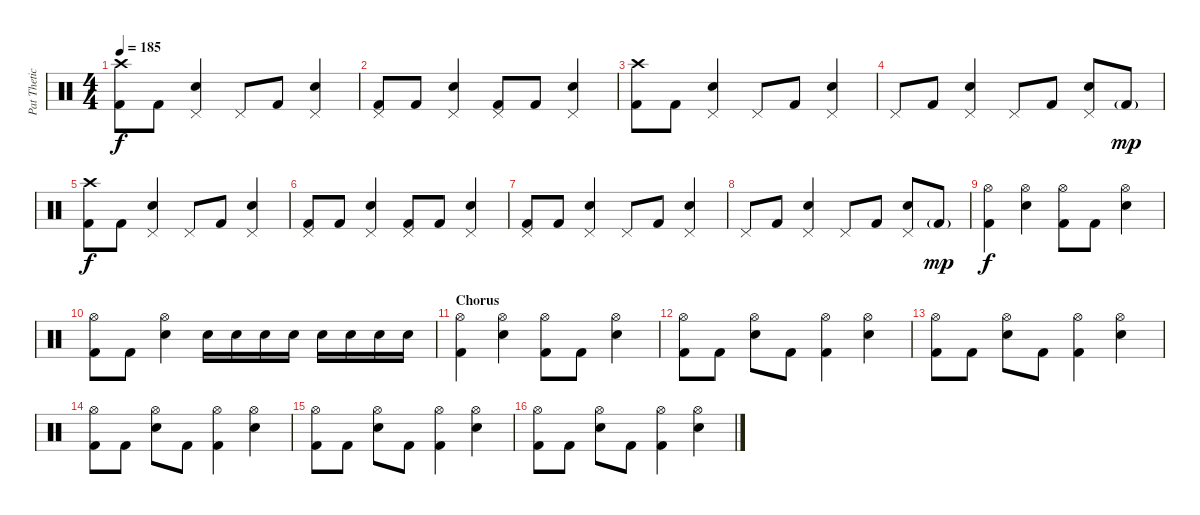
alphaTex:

\track ("Pat Thetic" "Pat Thetic") {instrument percussion}
\staff {score}
\articulation defaults
\ts (4 4)
\tempo 185
\clef neutral
\ks c
("Crash high (hit)" "Kick (hit) 2").8{dy f} "Kick (hit) 2".8 ("Pedal Hi-Hat (hit)" "Electric Snare (hit)").4 "Pedal Hi-Hat (hit)".8 "Kick (hit) 2".8 ("Pedal Hi-Hat (hit)" "Electric Snare (hit)").4 |
("Pedal Hi-Hat (hit)" "Kick (hit) 2").8 "Kick (hit) 2".8 ("Pedal Hi-Hat (hit)" "Electric Snare (hit)").4 ("Pedal Hi-Hat (hit)" "Kick (hit) 2").8 "Kick (hit) 2".8 ("Pedal Hi-Hat (hit)" "Electric Snare (hit)").4 |
("Crash high (hit)" "Kick (hit) 2").8 "Kick (hit) 2".8 ("Pedal Hi-Hat (hit)" "Electric Snare (hit)").4 "Pedal Hi-Hat (hit)".8 "Kick (hit) 2".8 ("Pedal Hi-Hat (hit)" "Electric Snare (hit)").4 |
"Pedal Hi-Hat (hit)".8 "Kick (hit) 2".8 ("Pedal Hi-Hat (hit)" "Electric Snare (hit)").4 "Pedal Hi-Hat (hit)".8 "Kick (hit) 2".8 ("Pedal Hi-Hat (hit)" "Electric Snare (hit)").8 "Kick (hit) 2"{g}.8{dy mp} |
("Crash high (hit)" "Kick (hit) 2").8{dy f} "Kick (hit) 2".8 ("Pedal Hi-Hat (hit)" "Electric Snare (hit)").4 "Pedal Hi-Hat (hit)".8 "Kick (hit) 2".8 ("Pedal Hi-Hat (hit)" "Electric Snare (hit)").4 |
("Pedal Hi-Hat (hit)" "Kick (hit) 2").8 "Kick (hit) 2".8 ("Pedal Hi-Hat (hit)" "Electric Snare (hit)").4 ("Pedal Hi-Hat (hit)" "Kick (hit) 2").8 "Kick (hit) 2".8 ("Pedal Hi-Hat (hit)" "Electric Snare (hit)").4 |
("Pedal Hi-Hat (hit)" "Kick (hit) 2").8 "Kick (hit) 2".8 ("Pedal Hi-Hat (hit)" "Electric Snare (hit)").4 "Pedal Hi-Hat (hit)".8 "Kick (hit) 2".8 ("Pedal Hi-Hat (hit)" "Electric Snare (hit)").4 |
"Pedal Hi-Hat (hit)".8 "Kick (hit) 2".8 ("Pedal Hi-Hat (hit)" "Electric Snare (hit)").4 "Pedal Hi-Hat (hit)".8 "Kick (hit) 2".8 ("Pedal Hi-Hat (hit)" "Electric Snare (hit)").8 "Kick (hit) 2"{g}.8{dy mp} |
("Hi-Hat (open)" "Kick (hit) 2").4{dy f} ("Hi-Hat (open)" "Electric Snare (hit)").4 ("Hi-Hat (open)" "Kick (hit) 2").8 "Kick (hit) 2".8 ("Hi-Hat (open)" "Electric Snare (hit)").4 |
("Hi-Hat (open)" "Kick (hit) 2").8 "Kick (hit) 2".8 ("Hi-Hat (open)" "Electric Snare (hit)").4 "Electric Snare (hit)".16 "Electric Snare (hit)".16 "Electric Snare (hit)".16 "Electric Snare (hit)".16 "Electric Snare (hit)".16 "Electric Snare (hit)".16 "Electric Snare (hit)".16 "Electric Snare (hit)".16 |
\section ("" "Chorus")
("Hi-Hat (open)" "Kick (hit) 2").4 ("Hi-Hat (open)" "Electric Snare (hit)").4 ("Hi-Hat (open)" "Kick (hit) 2").8 "Kick (hit) 2".8 ("Hi-Hat (open)" "Electric Snare (hit)").4 |
("Hi-Hat (open)" "Kick (hit) 2").8 "Kick (hit) 2".8 ("Hi-Hat (open)" "Electric Snare (hit)").8 "Kick (hit) 2".8 ("Hi-Hat (open)" "Kick (hit) 2").4 ("Hi-Hat (open)" "Electric Snare (hit)").4 |
("Hi-Hat (open)" "Kick (hit) 2").8 "Kick (hit) 2".8 ("Hi-Hat (open)" "Electric Snare (hit)").8 "Kick (hit) 2".8 ("Hi-Hat (open)" "Kick (hit) 2").4 ("Hi-Hat (open)" "Electric Snare (hit)").4 |
("Hi-Hat (open)" "Kick (hit) 2").8 "Kick (hit) 2".8 ("Hi-Hat (open)" "Electric Snare (hit)").8 "Kick (hit) 2".8 ("Hi-Hat (open)" "Kick (hit) 2").4 ("Hi-Hat (open)" "Electric Snare (hit)").4 |
("Hi-Hat (open)" "Kick (hit) 2").8 "Kick (hit) 2".8 ("Hi-Hat (open)" "Electric Snare (hit)").8 "Kick (hit) 2".8 ("Hi-Hat (open)" "Kick (hit) 2").4 ("Hi-Hat (open)" "Electric Snare (hit)").4 |
("Hi-Hat (open)" "Kick (hit) 2").8 "Kick (hit) 2".8 ("Hi-Hat (open)" "Electric Snare (hit)").8 "Kick (hit) 2".8 ("Hi-Hat (open)" "Kick (hit) 2").4 ("Hi-Hat (open)" "Electric Snare (hit)").4
